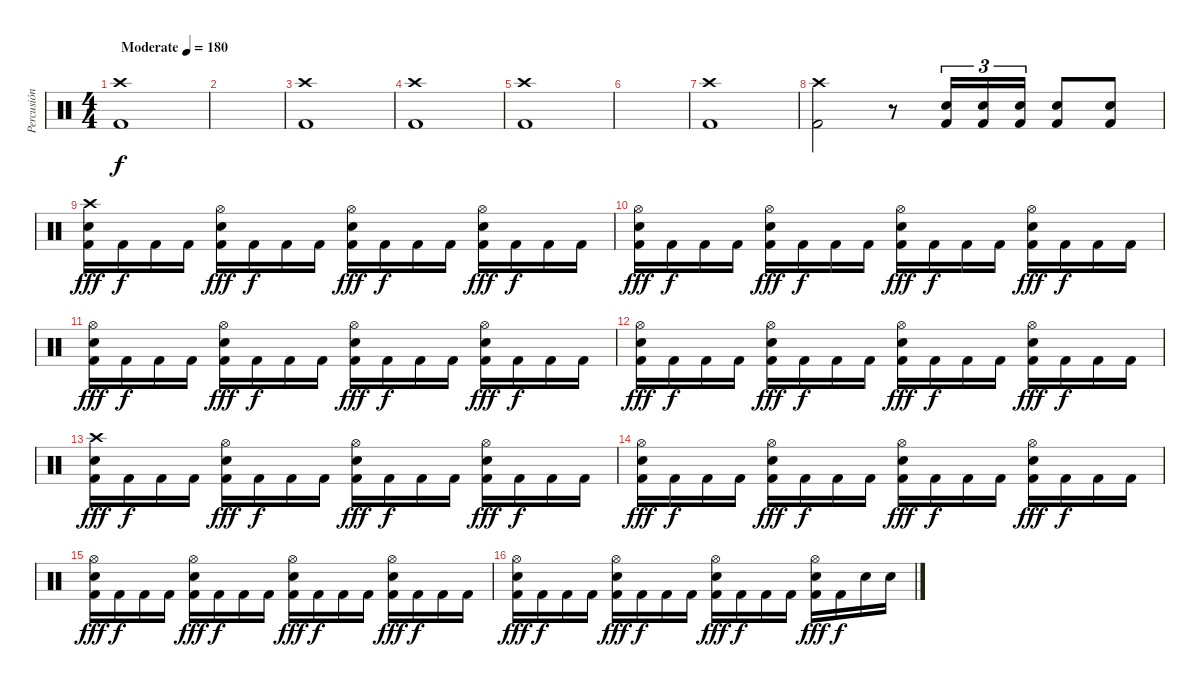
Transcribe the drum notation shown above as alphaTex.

\track ("Percusión" "Percusión") {instrument percussion}
\staff {score}
\articulation defaults
\ts (4 4)
\tempo (180 "Moderate")
\clef neutral
\ks c
("Crash high (hit)" "Kick (hit) 2").1{dy f} |
|
("Kick (hit) 2" "Crash high (hit)").1 |
("Kick (hit) 2" "Crash high (hit)").1 |
("Crash high (hit)" "Kick (hit) 2").1 |
|
("Kick (hit) 2" "Crash high (hit)").1 |
("Kick (hit) 2" "Crash high (hit)").2 r.8 ("Snare (hit) 2" "Kick (hit) 2").16{tu (3 2)} ("Snare (hit) 2" "Kick (hit) 2").16{tu (3 2)} ("Snare (hit) 2" "Kick (hit) 2").16{tu (3 2)} ("Snare (hit) 2" "Kick (hit) 2").8 ("Snare (hit) 2" "Kick (hit) 2").8 |
("Kick (hit) 2" "Electric Snare (hit)" "Crash high (hit)").16{dy fff} "Kick (hit) 2".16{dy f} "Kick (hit) 2".16 "Kick (hit) 2".16 ("Kick (hit) 2" "Electric Snare (hit)" "Hi-Hat (open)").16{dy fff} "Kick (hit) 2".16{dy f} "Kick (hit) 2".16 "Kick (hit) 2".16 ("Kick (hit) 2" "Electric Snare (hit)" "Hi-Hat (open)").16{dy fff} "Kick (hit) 2".16{dy f} "Kick (hit) 2".16 "Kick (hit) 2".16 ("Kick (hit) 2" "Electric Snare (hit)" "Hi-Hat (open)").16{dy fff} "Kick (hit) 2".16{dy f} "Kick (hit) 2".16 "Kick (hit) 2".16 |
("Kick (hit) 2" "Electric Snare (hit)" "Hi-Hat (open)").16{dy fff} "Kick (hit) 2".16{dy f} "Kick (hit) 2".16 "Kick (hit) 2".16 ("Kick (hit) 2" "Electric Snare (hit)" "Hi-Hat (open)").16{dy fff} "Kick (hit) 2".16{dy f} "Kick (hit) 2".16 "Kick (hit) 2".16 ("Kick (hit) 2" "Electric Snare (hit)" "Hi-Hat (open)").16{dy fff} "Kick (hit) 2".16{dy f} "Kick (hit) 2".16 "Kick (hit) 2".16 ("Kick (hit) 2" "Electric Snare (hit)" "Hi-Hat (open)").16{dy fff} "Kick (hit) 2".16{dy f} "Kick (hit) 2".16 "Kick (hit) 2".16 |
("Kick (hit) 2" "Electric Snare (hit)" "Hi-Hat (open)").16{dy fff} "Kick (hit) 2".16{dy f} "Kick (hit) 2".16 "Kick (hit) 2".16 ("Kick (hit) 2" "Electric Snare (hit)" "Hi-Hat (open)").16{dy fff} "Kick (hit) 2".16{dy f} "Kick (hit) 2".16 "Kick (hit) 2".16 ("Kick (hit) 2" "Electric Snare (hit)" "Hi-Hat (open)").16{dy fff} "Kick (hit) 2".16{dy f} "Kick (hit) 2".16 "Kick (hit) 2".16 ("Kick (hit) 2" "Electric Snare (hit)" "Hi-Hat (open)").16{dy fff} "Kick (hit) 2".16{dy f} "Kick (hit) 2".16 "Kick (hit) 2".16 |
("Kick (hit) 2" "Electric Snare (hit)" "Hi-Hat (open)").16{dy fff} "Kick (hit) 2".16{dy f} "Kick (hit) 2".16 "Kick (hit) 2".16 ("Kick (hit) 2" "Electric Snare (hit)" "Hi-Hat (open)").16{dy fff} "Kick (hit) 2".16{dy f} "Kick (hit) 2".16 "Kick (hit) 2".16 ("Kick (hit) 2" "Electric Snare (hit)" "Hi-Hat (open)").16{dy fff} "Kick (hit) 2".16{dy f} "Kick (hit) 2".16 "Kick (hit) 2".16 ("Kick (hit) 2" "Electric Snare (hit)" "Hi-Hat (open)").16{dy fff} "Kick (hit) 2".16{dy f} "Kick (hit) 2".16 "Kick (hit) 2".16 |
("Kick (hit) 2" "Electric Snare (hit)" "Crash high (hit)").16{dy fff} "Kick (hit) 2".16{dy f} "Kick (hit) 2".16 "Kick (hit) 2".16 ("Kick (hit) 2" "Electric Snare (hit)" "Hi-Hat (open)").16{dy fff} "Kick (hit) 2".16{dy f} "Kick (hit) 2".16 "Kick (hit) 2".16 ("Kick (hit) 2" "Electric Snare (hit)" "Hi-Hat (open)").16{dy fff} "Kick (hit) 2".16{dy f} "Kick (hit) 2".16 "Kick (hit) 2".16 ("Kick (hit) 2" "Electric Snare (hit)" "Hi-Hat (open)").16{dy fff} "Kick (hit) 2".16{dy f} "Kick (hit) 2".16 "Kick (hit) 2".16 |
("Kick (hit) 2" "Electric Snare (hit)" "Hi-Hat (open)").16{dy fff} "Kick (hit) 2".16{dy f} "Kick (hit) 2".16 "Kick (hit) 2".16 ("Kick (hit) 2" "Electric Snare (hit)" "Hi-Hat (open)").16{dy fff} "Kick (hit) 2".16{dy f} "Kick (hit) 2".16 "Kick (hit) 2".16 ("Kick (hit) 2" "Electric Snare (hit)" "Hi-Hat (open)").16{dy fff} "Kick (hit) 2".16{dy f} "Kick (hit) 2".16 "Kick (hit) 2".16 ("Kick (hit) 2" "Electric Snare (hit)" "Hi-Hat (open)").16{dy fff} "Kick (hit) 2".16{dy f} "Kick (hit) 2".16 "Kick (hit) 2".16 |
("Kick (hit) 2" "Electric Snare (hit)" "Hi-Hat (open)").16{dy fff} "Kick (hit) 2".16{dy f} "Kick (hit) 2".16 "Kick (hit) 2".16 ("Kick (hit) 2" "Electric Snare (hit)" "Hi-Hat (open)").16{dy fff} "Kick (hit) 2".16{dy f} "Kick (hit) 2".16 "Kick (hit) 2".16 ("Kick (hit) 2" "Electric Snare (hit)" "Hi-Hat (open)").16{dy fff} "Kick (hit) 2".16{dy f} "Kick (hit) 2".16 "Kick (hit) 2".16 ("Kick (hit) 2" "Electric Snare (hit)" "Hi-Hat (open)").16{dy fff} "Kick (hit) 2".16{dy f} "Kick (hit) 2".16 "Kick (hit) 2".16 |
("Kick (hit) 2" "Electric Snare (hit)" "Hi-Hat (open)").16{dy fff} "Kick (hit) 2".16{dy f} "Kick (hit) 2".16 "Kick (hit) 2".16 ("Kick (hit) 2" "Electric Snare (hit)" "Hi-Hat (open)").16{dy fff} "Kick (hit) 2".16{dy f} "Kick (hit) 2".16 "Kick (hit) 2".16 ("Kick (hit) 2" "Electric Snare (hit)" "Hi-Hat (open)").16{dy fff} "Kick (hit) 2".16{dy f} "Kick (hit) 2".16 "Kick (hit) 2".16 ("Kick (hit) 2" "Electric Snare (hit)" "Hi-Hat (open)").16{dy fff} "Kick (hit) 2".16{dy f} "Snare (hit) 2".16 "Snare (hit) 2".16
